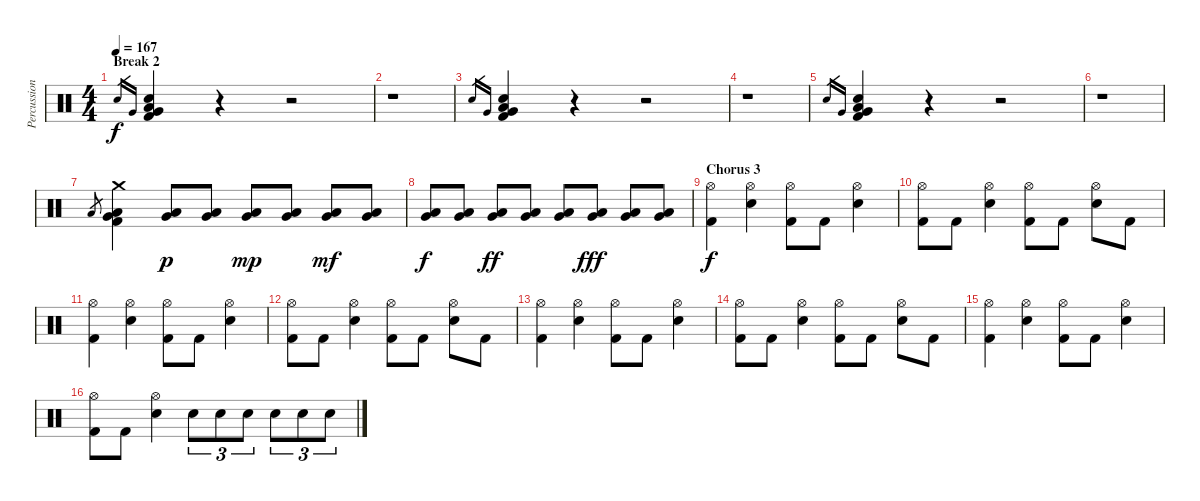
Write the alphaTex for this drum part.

\track ("Percussion" "Percussion") {instrument percussion}
\staff {score}
\articulation defaults
\ts (4 4)
\section ("" "Break 2")
\tempo 167
\clef neutral
\ks c "Electric Snare (hit)".16{gr dy f} "Very Low Tom (hit)".16{gr}
("Low Floor Tom (hit)" "Electric Snare (hit)" "Very Low Tom (hit)" "Kick (hit) 2").4 r.4 r.2 |
r.1 |
"Electric Snare (hit)".16{gr} "Very Low Tom (hit)".16{gr} ("Low Floor Tom (hit)" "Electric Snare (hit)" "Very Low Tom (hit)" "Kick (hit) 2").4 r.4 r.2 |
r.1 |
"Electric Snare (hit)".16{gr} "Very Low Tom (hit)".16{gr} ("Low Floor Tom (hit)" "Electric Snare (hit)" "Very Low Tom (hit)" "Kick (hit) 2").4 r.4 r.2 |
r.1 |
"Low Tom (hit)".8{gr} ("Crash medium (hit)" "Low Tom (hit)" "Very Low Tom (hit)" "Kick (hit) 2").4 ("Low Tom (hit)" "Very Low Tom (hit)").8{dy p} ("Low Tom (hit)" "Very Low Tom (hit)").8 ("Low Tom (hit)" "Very Low Tom (hit)").8{dy mp} ("Low Tom (hit)" "Very Low Tom (hit)").8 ("Low Tom (hit)" "Very Low Tom (hit)").8{dy mf} ("Low Tom (hit)" "Very Low Tom (hit)").8 |
("Very Low Tom (hit)" "Low Tom (hit)").8{dy f} ("Very Low Tom (hit)" "Low Tom (hit)").8 ("Very Low Tom (hit)" "Low Tom (hit)").8{dy ff} ("Very Low Tom (hit)" "Low Tom (hit)").8 ("Very Low Tom (hit)" "Low Tom (hit)").8 ("Very Low Tom (hit)" "Low Tom (hit)").8{dy fff} ("Very Low Tom (hit)" "Low Tom (hit)").8 ("Very Low Tom (hit)" "Low Tom (hit)").8 |
\section ("" "Chorus 3")
("Hi-Hat (open)" "Kick (hit) 2").4{dy f} ("Hi-Hat (open)" "Electric Snare (hit)").4 ("Hi-Hat (open)" "Kick (hit) 2").8 "Kick (hit) 2".8 ("Hi-Hat (open)" "Electric Snare (hit)").4 |
("Hi-Hat (open)" "Kick (hit) 2").8 "Kick (hit) 2".8 ("Hi-Hat (open)" "Electric Snare (hit)").4 ("Hi-Hat (open)" "Kick (hit) 2").8 "Kick (hit) 2".8 ("Hi-Hat (open)" "Electric Snare (hit)").8 "Kick (hit) 2".8 |
("Hi-Hat (open)" "Kick (hit) 2").4 ("Hi-Hat (open)" "Electric Snare (hit)").4 ("Hi-Hat (open)" "Kick (hit) 2").8 "Kick (hit) 2".8 ("Hi-Hat (open)" "Electric Snare (hit)").4 |
("Hi-Hat (open)" "Kick (hit) 2").8 "Kick (hit) 2".8 ("Hi-Hat (open)" "Electric Snare (hit)").4 ("Hi-Hat (open)" "Kick (hit) 2").8 "Kick (hit) 2".8 ("Hi-Hat (open)" "Electric Snare (hit)").8 "Kick (hit) 2".8 |
("Hi-Hat (open)" "Kick (hit) 2").4 ("Hi-Hat (open)" "Electric Snare (hit)").4 ("Hi-Hat (open)" "Kick (hit) 2").8 "Kick (hit) 2".8 ("Hi-Hat (open)" "Electric Snare (hit)").4 |
("Hi-Hat (open)" "Kick (hit) 2").8 "Kick (hit) 2".8 ("Hi-Hat (open)" "Electric Snare (hit)").4 ("Hi-Hat (open)" "Kick (hit) 2").8 "Kick (hit) 2".8 ("Hi-Hat (open)" "Electric Snare (hit)").8 "Kick (hit) 2".8 |
("Hi-Hat (open)" "Kick (hit) 2").4 ("Hi-Hat (open)" "Electric Snare (hit)").4 ("Hi-Hat (open)" "Kick (hit) 2").8 "Kick (hit) 2".8 ("Hi-Hat (open)" "Electric Snare (hit)").4 |
("Hi-Hat (open)" "Kick (hit) 2").8 "Kick (hit) 2".8 ("Hi-Hat (open)" "Electric Snare (hit)").4 "Electric Snare (hit)".8{tu (3 2)} "Electric Snare (hit)".8{tu (3 2)} "Electric Snare (hit)".8{tu (3 2)} "Electric Snare (hit)".8{tu (3 2)} "Electric Snare (hit)".8{tu (3 2)} "Electric Snare (hit)".8{tu (3 2)}
